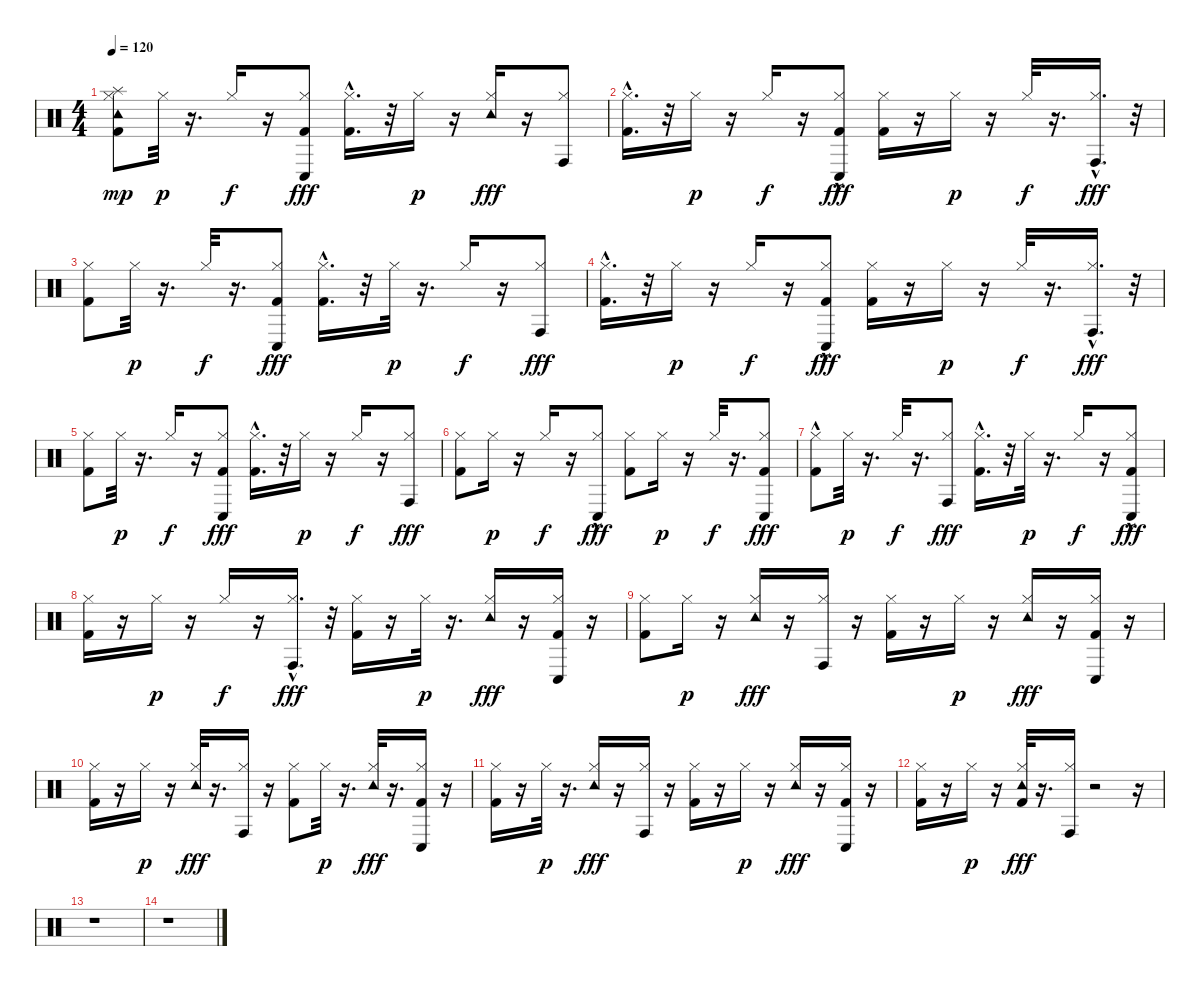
\track "" {instrument percussion}
\staff {score}
\articulation defaults
\ts (4 4)
\tempo 120
\clef neutral
\ks c
("Kick (hit) 2" "Hi-Hat (closed)" "Tambourine (hit)" "Splash (hit)").8{dy mp} "Hi-Hat (closed)".32{dy p} r.16{d} "Hi-Hat (closed)".16{dy f} r.16 ("Kick (hit) 2" "Hi-Hat (closed)" "Conga low (hit)").8{dy fff} ("Kick (hit) 2"{hac} "Hi-Hat (closed)").16{d} r.32 "Hi-Hat (closed)".16{dy p} r.16 ("Hi-Hat (closed)" "Tambourine (hit)").16{dy fff} r.16 ("Hi-Hat (closed)" "Conga high (hit)").8 |
("Kick (hit) 2"{hac} "Hi-Hat (closed)").16{d} r.32 "Hi-Hat (closed)".16{dy p} r.16 "Hi-Hat (closed)".16{dy f} r.16 ("Kick (hit) 2" "Hi-Hat (closed)" "Conga low (hit)"{hac}).8{dy fff} ("Kick (hit) 2" "Hi-Hat (closed)").16 r.16 "Hi-Hat (closed)".16{dy p} r.16 "Hi-Hat (closed)".32{dy f} r.16{d} ("Hi-Hat (closed)" "Conga high (hit)"{hac}).16{d dy fff} r.32 |
("Kick (hit) 2" "Hi-Hat (closed)").8 "Hi-Hat (closed)".32{dy p} r.16{d} "Hi-Hat (closed)".32{dy f} r.16{d} ("Kick (hit) 2" "Hi-Hat (closed)" "Conga low (hit)").8{dy fff} ("Kick (hit) 2"{hac} "Hi-Hat (closed)").16{d} r.32 "Hi-Hat (closed)".32{dy p} r.16{d} "Hi-Hat (closed)".16{dy f} r.16 ("Hi-Hat (closed)" "Conga high (hit)").8{dy fff} |
("Kick (hit) 2"{hac} "Hi-Hat (closed)").16{d} r.32 "Hi-Hat (closed)".16{dy p} r.16 "Hi-Hat (closed)".16{dy f} r.16 ("Kick (hit) 2" "Hi-Hat (closed)" "Conga low (hit)"{hac}).8{dy fff} ("Kick (hit) 2" "Hi-Hat (closed)").16 r.16 "Hi-Hat (closed)".16{dy p} r.16 "Hi-Hat (closed)".32{dy f} r.16{d} ("Hi-Hat (closed)" "Conga high (hit)"{hac}).16{d dy fff} r.32 |
("Kick (hit) 2" "Hi-Hat (closed)").8 "Hi-Hat (closed)".32{dy p} r.16{d} "Hi-Hat (closed)".16{dy f} r.16 ("Kick (hit) 2" "Hi-Hat (closed)" "Conga low (hit)").8{dy fff} ("Kick (hit) 2"{hac} "Hi-Hat (closed)").16{d} r.32 "Hi-Hat (closed)".16{dy p} r.16 "Hi-Hat (closed)".16{dy f} r.16 ("Hi-Hat (closed)" "Conga high (hit)").8{dy fff} |
("Kick (hit) 2" "Hi-Hat (closed)").8 "Hi-Hat (closed)".16{dy p} r.16 "Hi-Hat (closed)".16{dy f} r.16 ("Hi-Hat (closed)" "Conga low (hit)"{hac}).8{dy fff} ("Kick (hit) 2" "Hi-Hat (closed)").8 "Hi-Hat (closed)".16{dy p} r.16 "Hi-Hat (closed)".32{dy f} r.16{d} ("Kick (hit) 2" "Hi-Hat (closed)" "Conga low (hit)").8{dy fff} |
("Kick (hit) 2"{hac} "Hi-Hat (closed)").8 "Hi-Hat (closed)".32{dy p} r.16{d} "Hi-Hat (closed)".32{dy f} r.16{d} ("Hi-Hat (closed)" "Conga high (hit)").8{dy fff} ("Kick (hit) 2"{hac} "Hi-Hat (closed)").16{d} r.32 "Hi-Hat (closed)".32{dy p} r.16{d} "Hi-Hat (closed)".16{dy f} r.16 ("Kick (hit) 2" "Hi-Hat (closed)" "Conga low (hit)"{hac}).8{dy fff} |
("Kick (hit) 2" "Hi-Hat (closed)").16 r.16 "Hi-Hat (closed)".16{dy p} r.16 "Hi-Hat (closed)".16{dy f} r.16 ("Hi-Hat (closed)" "Conga high (hit)"{hac}).16{d dy fff} r.32 ("Kick (hit) 2" "Hi-Hat (closed)").16 r.16 "Hi-Hat (closed)".32{dy p} r.16{d} ("Tambourine (hit)" "Hi-Hat (closed)").16{dy fff} r.16 ("Kick (hit) 2" "Hi-Hat (closed)" "Conga low (hit)").16 r.16 |
("Kick (hit) 2" "Hi-Hat (closed)").8 "Hi-Hat (closed)".16{dy p} r.16 ("Tambourine (hit)" "Hi-Hat (closed)").16{dy fff} r.16 ("Hi-Hat (closed)" "Conga high (hit)").16 r.16 ("Kick (hit) 2" "Hi-Hat (closed)").16 r.16 "Hi-Hat (closed)".16{dy p} r.16 ("Tambourine (hit)" "Hi-Hat (closed)").16{dy fff} r.16 ("Kick (hit) 2" "Hi-Hat (closed)" "Conga low (hit)").16 r.16 |
("Kick (hit) 2" "Hi-Hat (closed)").16 r.16 "Hi-Hat (closed)".16{dy p} r.16 ("Tambourine (hit)" "Hi-Hat (closed)").32{dy fff} r.16{d} ("Hi-Hat (closed)" "Conga high (hit)").16 r.16 ("Kick (hit) 2" "Hi-Hat (closed)").8 "Hi-Hat (closed)".32{dy p} r.16{d} ("Tambourine (hit)" "Hi-Hat (closed)").32{dy fff} r.16{d} ("Kick (hit) 2" "Hi-Hat (closed)" "Conga low (hit)").16 r.16 |
("Kick (hit) 2" "Hi-Hat (closed)").16 r.16 "Hi-Hat (closed)".32{dy p} r.16{d} ("Tambourine (hit)" "Hi-Hat (closed)").16{dy fff} r.16 ("Hi-Hat (closed)" "Conga high (hit)").16 r.16 ("Kick (hit) 2" "Hi-Hat (closed)").16 r.16 "Hi-Hat (closed)".16{dy p} r.16 ("Tambourine (hit)" "Hi-Hat (closed)").16{dy fff} r.16 ("Kick (hit) 2" "Hi-Hat (closed)" "Conga low (hit)").16 r.16 |
("Kick (hit) 2" "Hi-Hat (closed)").16 r.16 "Hi-Hat (closed)".16{dy p} r.16 ("Tambourine (hit)" "Kick (hit) 2" "Hi-Hat (closed)").32{dy fff} r.16{d} ("Hi-Hat (closed)" "Conga high (hit)").16 r.2 r.16 |
r.1 |
r.1
